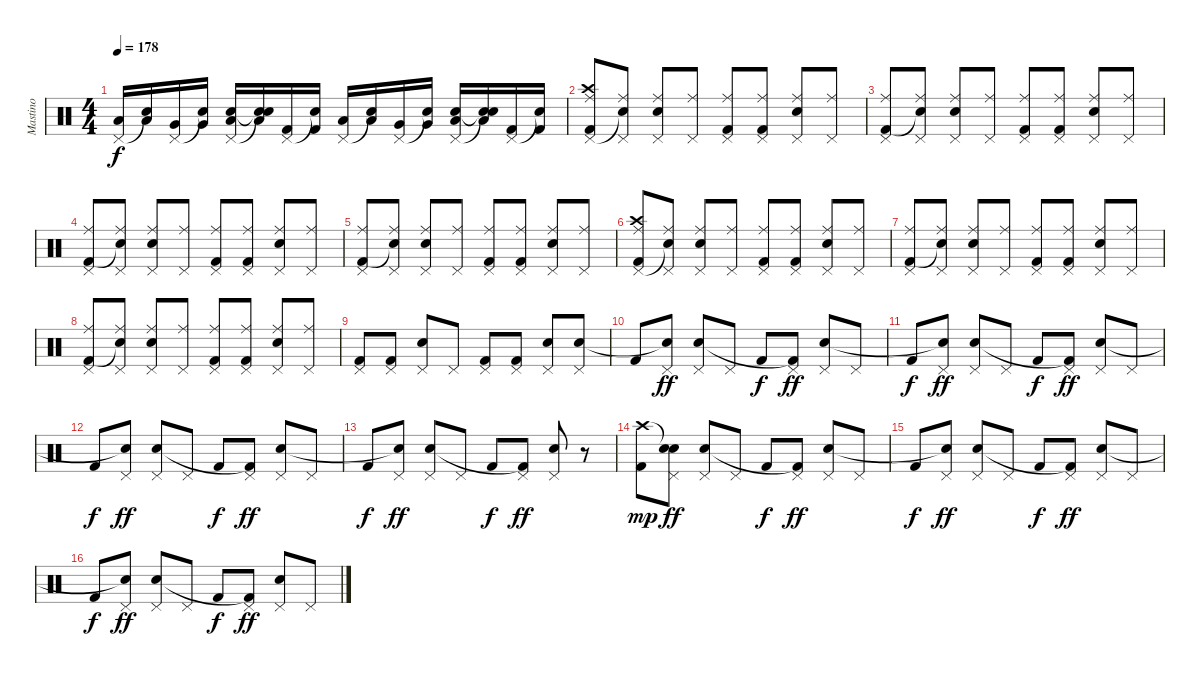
\track ("Mastino" "Mastino") {instrument percussion}
\staff {score}
\articulation defaults
\ts (4 4)
\tempo 178
\clef neutral
\ks c
("Pedal Hi-Hat (hit)" "Low Tom (hit)").16{dy f} ("Snare (hit)"{t} "Low Tom (hit)").16 ("Pedal Hi-Hat (hit)" "Very Low Tom (hit)").16 ("Snare (hit)"{t} "Very Low Tom (hit)").16 ("Pedal Hi-Hat (hit)" "Electric Snare (hit)" "Low Floor Tom (hit)").16 ("Snare (hit)"{t} "Electric Snare (hit)"{t} "Low Floor Tom (hit)").16 ("Pedal Hi-Hat (hit)" "Kick (hit) 2").16 ("Snare (hit)"{t} "Kick (hit) 2").16 ("Pedal Hi-Hat (hit)" "Low Tom (hit)").16 ("Snare (hit)"{t} "Low Tom (hit)").16 ("Pedal Hi-Hat (hit)" "Very Low Tom (hit)").16 ("Snare (hit)"{t} "Very Low Tom (hit)").16 ("Pedal Hi-Hat (hit)" "Electric Snare (hit)" "Low Floor Tom (hit)").16 ("Snare (hit)"{t} "Electric Snare (hit)"{t} "Low Floor Tom (hit)").16 ("Pedal Hi-Hat (hit)" "Kick (hit) 2").16 ("Snare (hit)"{t} "Kick (hit) 2").16 |
("Crash high (hit)" "Ride (middle)" "Pedal Hi-Hat (hit)" "Kick (hit) 2").8 ("Ride (middle)" "Pedal Hi-Hat (hit)" "Snare (hit)"{t}).8 ("Ride (middle)" "Pedal Hi-Hat (hit)" "Electric Snare (hit)").8 ("Ride (middle)" "Pedal Hi-Hat (hit)").8 ("Ride (middle)" "Pedal Hi-Hat (hit)" "Kick (hit) 2").8 ("Ride (middle)" "Pedal Hi-Hat (hit)" "Kick (hit) 2").8 ("Ride (middle)" "Pedal Hi-Hat (hit)" "Electric Snare (hit)").8 ("Ride (middle)" "Pedal Hi-Hat (hit)").8 |
("Ride (middle)" "Pedal Hi-Hat (hit)" "Kick (hit) 2").8 ("Ride (middle)" "Pedal Hi-Hat (hit)" "Snare (hit)"{t}).8 ("Ride (middle)" "Pedal Hi-Hat (hit)" "Electric Snare (hit)").8 ("Ride (middle)" "Pedal Hi-Hat (hit)").8 ("Ride (middle)" "Pedal Hi-Hat (hit)" "Kick (hit) 2").8 ("Ride (middle)" "Pedal Hi-Hat (hit)" "Kick (hit) 2").8 ("Ride (middle)" "Pedal Hi-Hat (hit)" "Electric Snare (hit)").8 ("Ride (middle)" "Pedal Hi-Hat (hit)").8 |
("Ride (middle)" "Pedal Hi-Hat (hit)" "Kick (hit) 2").8 ("Ride (middle)" "Pedal Hi-Hat (hit)" "Snare (hit)"{t}).8 ("Ride (middle)" "Pedal Hi-Hat (hit)" "Electric Snare (hit)").8 ("Ride (middle)" "Pedal Hi-Hat (hit)").8 ("Ride (middle)" "Pedal Hi-Hat (hit)" "Kick (hit) 2").8 ("Ride (middle)" "Pedal Hi-Hat (hit)" "Kick (hit) 2").8 ("Ride (middle)" "Pedal Hi-Hat (hit)" "Electric Snare (hit)").8 ("Ride (middle)" "Pedal Hi-Hat (hit)").8 |
("Ride (middle)" "Pedal Hi-Hat (hit)" "Kick (hit) 2").8 ("Ride (middle)" "Pedal Hi-Hat (hit)" "Snare (hit)"{t}).8 ("Ride (middle)" "Pedal Hi-Hat (hit)" "Electric Snare (hit)").8 ("Ride (middle)" "Pedal Hi-Hat (hit)").8 ("Ride (middle)" "Pedal Hi-Hat (hit)" "Kick (hit) 2").8 ("Ride (middle)" "Pedal Hi-Hat (hit)" "Kick (hit) 2").8 ("Ride (middle)" "Pedal Hi-Hat (hit)" "Electric Snare (hit)").8 ("Ride (middle)" "Pedal Hi-Hat (hit)").8 |
("Crash high (hit)" "Ride (middle)" "Pedal Hi-Hat (hit)" "Kick (hit) 2").8 ("Ride (middle)" "Pedal Hi-Hat (hit)" "Snare (hit)"{t}).8 ("Ride (middle)" "Pedal Hi-Hat (hit)" "Electric Snare (hit)").8 ("Ride (middle)" "Pedal Hi-Hat (hit)").8 ("Ride (middle)" "Pedal Hi-Hat (hit)" "Kick (hit) 2").8 ("Ride (middle)" "Pedal Hi-Hat (hit)" "Kick (hit) 2").8 ("Ride (middle)" "Pedal Hi-Hat (hit)" "Electric Snare (hit)").8 ("Ride (middle)" "Pedal Hi-Hat (hit)").8 |
("Ride (middle)" "Pedal Hi-Hat (hit)" "Kick (hit) 2").8 ("Ride (middle)" "Pedal Hi-Hat (hit)" "Snare (hit)"{t}).8 ("Ride (middle)" "Pedal Hi-Hat (hit)" "Electric Snare (hit)").8 ("Ride (middle)" "Pedal Hi-Hat (hit)").8 ("Ride (middle)" "Pedal Hi-Hat (hit)" "Kick (hit) 2").8 ("Ride (middle)" "Pedal Hi-Hat (hit)" "Kick (hit) 2").8 ("Ride (middle)" "Pedal Hi-Hat (hit)" "Electric Snare (hit)").8 ("Ride (middle)" "Pedal Hi-Hat (hit)").8 |
("Ride (middle)" "Pedal Hi-Hat (hit)" "Kick (hit) 2").8 ("Ride (middle)" "Pedal Hi-Hat (hit)" "Snare (hit)"{t}).8 ("Ride (middle)" "Pedal Hi-Hat (hit)" "Electric Snare (hit)").8 ("Ride (middle)" "Pedal Hi-Hat (hit)").8 ("Ride (middle)" "Pedal Hi-Hat (hit)" "Kick (hit) 2").8 ("Ride (middle)" "Pedal Hi-Hat (hit)" "Kick (hit) 2").8 ("Ride (middle)" "Pedal Hi-Hat (hit)" "Electric Snare (hit)").8 ("Ride (middle)" "Pedal Hi-Hat (hit)").8 |
("Pedal Hi-Hat (hit)" "Kick (hit) 2").8 ("Pedal Hi-Hat (hit)" "Kick (hit) 2").8 ("Pedal Hi-Hat (hit)" "Electric Snare (hit)").8 "Pedal Hi-Hat (hit)".8 ("Pedal Hi-Hat (hit)" "Kick (hit) 2").8 ("Pedal Hi-Hat (hit)" "Kick (hit) 2").8 ("Pedal Hi-Hat (hit)" "Electric Snare (hit)").8 ("Pedal Hi-Hat (hit)" "Electric Snare (hit)").8 |
"Kick (hit) 2".8 ("Pedal Hi-Hat (hit)" "Snare (hit)"{t}).8{dy ff} ("Pedal Hi-Hat (hit)" "Electric Snare (hit)").8 "Pedal Hi-Hat (hit)".8 "Kick (hit) 2".8{dy f} ("Pedal Hi-Hat (hit)" "Kick (hit) 2"{t}).8{dy ff} ("Pedal Hi-Hat (hit)" "Electric Snare (hit)").8 "Pedal Hi-Hat (hit)".8 |
"Kick (hit) 2".8{dy f} ("Pedal Hi-Hat (hit)" "Snare (hit)"{t}).8{dy ff} ("Pedal Hi-Hat (hit)" "Electric Snare (hit)").8 "Pedal Hi-Hat (hit)".8 "Kick (hit) 2".8{dy f} ("Pedal Hi-Hat (hit)" "Kick (hit) 2"{t}).8{dy ff} ("Pedal Hi-Hat (hit)" "Electric Snare (hit)").8 "Pedal Hi-Hat (hit)".8 |
"Kick (hit) 2".8{dy f} ("Pedal Hi-Hat (hit)" "Snare (hit)"{t}).8{dy ff} ("Pedal Hi-Hat (hit)" "Electric Snare (hit)").8 "Pedal Hi-Hat (hit)".8 "Kick (hit) 2".8{dy f} ("Pedal Hi-Hat (hit)" "Kick (hit) 2"{t}).8{dy ff} ("Pedal Hi-Hat (hit)" "Electric Snare (hit)").8 "Pedal Hi-Hat (hit)".8 |
"Kick (hit) 2".8{dy f} ("Pedal Hi-Hat (hit)" "Snare (hit)"{t}).8{dy ff} ("Pedal Hi-Hat (hit)" "Electric Snare (hit)").8 "Pedal Hi-Hat (hit)".8 "Kick (hit) 2".8{dy f} ("Pedal Hi-Hat (hit)" "Kick (hit) 2"{t}).8{dy ff} ("Pedal Hi-Hat (hit)" "Electric Snare (hit)").8 r.8 |
("Crash high (hit)" "Kick (hit) 2").8{dy mp} ("Snare (hit)"{t} "Pedal Hi-Hat (hit)" "Snare (hit)").8{dy ff} ("Pedal Hi-Hat (hit)" "Electric Snare (hit)").8 "Pedal Hi-Hat (hit)".8 "Kick (hit) 2".8{dy f} ("Pedal Hi-Hat (hit)" "Kick (hit) 2"{t}).8{dy ff} ("Pedal Hi-Hat (hit)" "Electric Snare (hit)").8 "Pedal Hi-Hat (hit)".8 |
"Kick (hit) 2".8{dy f} ("Pedal Hi-Hat (hit)" "Snare (hit)"{t}).8{dy ff} ("Pedal Hi-Hat (hit)" "Electric Snare (hit)").8 "Pedal Hi-Hat (hit)".8 "Kick (hit) 2".8{dy f} ("Pedal Hi-Hat (hit)" "Kick (hit) 2"{t}).8{dy ff} ("Pedal Hi-Hat (hit)" "Electric Snare (hit)").8 "Pedal Hi-Hat (hit)".8 |
"Kick (hit) 2".8{dy f} ("Pedal Hi-Hat (hit)" "Snare (hit)"{t}).8{dy ff} ("Pedal Hi-Hat (hit)" "Electric Snare (hit)").8 "Pedal Hi-Hat (hit)".8 "Kick (hit) 2".8{dy f} ("Pedal Hi-Hat (hit)" "Kick (hit) 2"{t}).8{dy ff} ("Pedal Hi-Hat (hit)" "Electric Snare (hit)").8 "Pedal Hi-Hat (hit)".8
